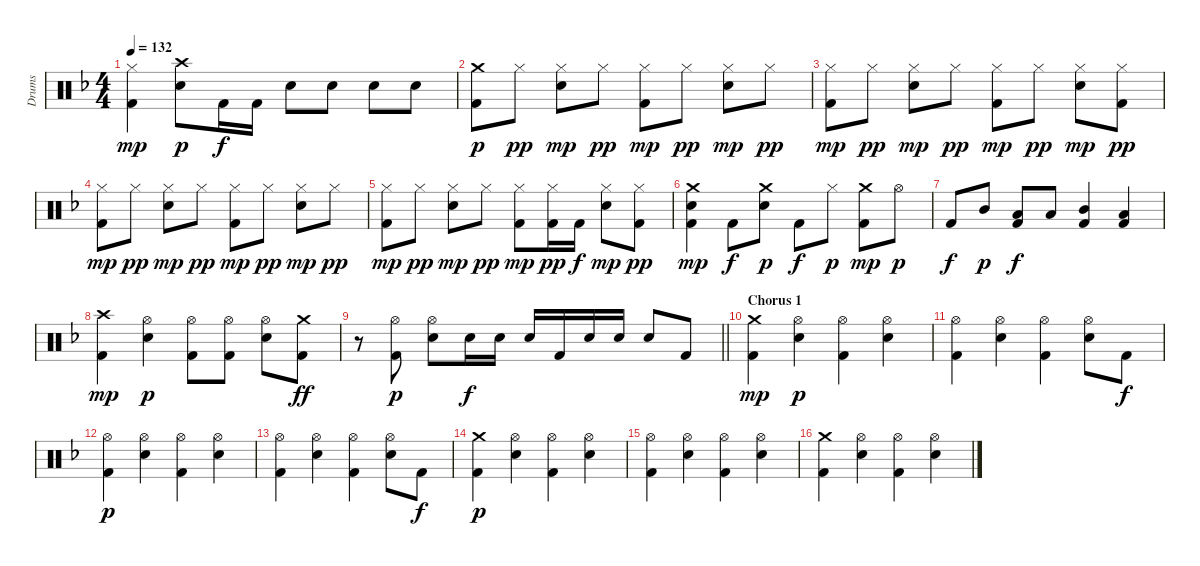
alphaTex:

\track ("Drums" "Drums") {instrument percussion}
\staff {score}
\articulation defaults
\ts (4 4)
\tempo 132
\clef neutral
\ks f
("Hi-Hat (closed)" "Kick (hit) 2").4{dy mp} ("Crash high (hit)" "Electric Snare (hit)").8{dy p} "Kick (hit) 2".16{dy f} "Kick (hit) 2".16 "Electric Snare (hit)".8 "Electric Snare (hit)".8 "Electric Snare (hit)".8 "Electric Snare (hit)".8 |
("Crash medium (hit)" "Kick (hit) 2").8{dy p} "Hi-Hat (closed)".8{dy pp} ("Hi-Hat (closed)" "Electric Snare (hit)").8{dy mp} "Hi-Hat (closed)".8{dy pp} ("Hi-Hat (closed)" "Kick (hit) 2").8{dy mp} "Hi-Hat (closed)".8{dy pp} ("Hi-Hat (closed)" "Electric Snare (hit)").8{dy mp} "Hi-Hat (closed)".8{dy pp} |
("Hi-Hat (closed)" "Kick (hit) 2").8{dy mp} "Hi-Hat (closed)".8{dy pp} ("Hi-Hat (closed)" "Electric Snare (hit)").8{dy mp} "Hi-Hat (closed)".8{dy pp} ("Hi-Hat (closed)" "Kick (hit) 2").8{dy mp} "Hi-Hat (closed)".8{dy pp} ("Hi-Hat (closed)" "Electric Snare (hit)").8{dy mp} ("Hi-Hat (closed)" "Kick (hit) 2").8{dy pp} |
("Hi-Hat (closed)" "Kick (hit) 2").8{dy mp} "Hi-Hat (closed)".8{dy pp} ("Hi-Hat (closed)" "Electric Snare (hit)").8{dy mp} "Hi-Hat (closed)".8{dy pp} ("Hi-Hat (closed)" "Kick (hit) 2").8{dy mp} "Hi-Hat (closed)".8{dy pp} ("Hi-Hat (closed)" "Electric Snare (hit)").8{dy mp} "Hi-Hat (closed)".8{dy pp} |
("Hi-Hat (closed)" "Kick (hit) 2").8{dy mp} "Hi-Hat (closed)".8{dy pp} ("Hi-Hat (closed)" "Electric Snare (hit)").8{dy mp} "Hi-Hat (closed)".8{dy pp} ("Hi-Hat (closed)" "Kick (hit) 2").8{dy mp} ("Hi-Hat (closed)" "Kick (hit) 2").16{dy pp} "Kick (hit) 2".16{dy f} ("Hi-Hat (closed)" "Electric Snare (hit)").8{dy mp} ("Hi-Hat (closed)" "Kick (hit) 2").8{dy pp} |
("Kick (hit) 2" "Crash medium (hit)" "Electric Snare (hit)").4{dy mp} "Kick (hit) 2".8{dy f} ("Electric Snare (hit)" "Crash medium (hit)").8{dy p} "Kick (hit) 2".8{dy f} "Hi-Hat (closed)".8{dy p} ("Kick (hit) 2" "Crash medium (hit)").8{dy mp} "Hi-Hat (open)".8{dy p} |
"Kick (hit) 2".8{dy f} "Mid Tom (hit)".8{dy p} ("Kick (hit) 2" "Low Tom (hit)").8{dy f} "Low Tom (hit)".8 ("Kick (hit) 2" "Mid Tom (hit)").4 ("Kick (hit) 2" "Low Tom (hit)").4 |
("Kick (hit) 2" "Crash high (hit)").4{dy mp} ("Electric Snare (hit)" "Hi-Hat (open)").4{dy p} ("Hi-Hat (open)" "Kick (hit) 2").8 ("Hi-Hat (open)" "Kick (hit) 2").8 ("Hi-Hat (open)" "Electric Snare (hit)").8 ("Crash medium (hit)" "Kick (hit) 2").8{dy ff} |
\barLineRight lightlight
r.8 ("Kick (hit) 2" "Hi-Hat (open)").8{dy p} ("Hi-Hat (open)" "Electric Snare (hit)").8 "Electric Snare (hit)".16{dy f} "Electric Snare (hit)".16 "Electric Snare (hit)".16 "Kick (hit) 2".16 "Electric Snare (hit)".16 "Electric Snare (hit)".16 "Electric Snare (hit)".8 "Kick (hit) 2".8 |
\section ("" "Chorus 1")
("Crash medium (hit)" "Kick (hit) 2").4{dy mp} ("Hi-Hat (open)" "Electric Snare (hit)").4{dy p} ("Hi-Hat (open)" "Kick (hit) 2").4 ("Hi-Hat (open)" "Electric Snare (hit)").4 |
("Hi-Hat (open)" "Kick (hit) 2").4 ("Hi-Hat (open)" "Electric Snare (hit)").4 ("Hi-Hat (open)" "Kick (hit) 2").4 ("Hi-Hat (open)" "Electric Snare (hit)").8 "Kick (hit) 2".8{dy f} |
("Hi-Hat (open)" "Kick (hit) 2").4{dy p} ("Hi-Hat (open)" "Electric Snare (hit)").4 ("Hi-Hat (open)" "Kick (hit) 2").4 ("Hi-Hat (open)" "Electric Snare (hit)").4 |
("Hi-Hat (open)" "Kick (hit) 2").4 ("Hi-Hat (open)" "Electric Snare (hit)").4 ("Hi-Hat (open)" "Kick (hit) 2").4 ("Hi-Hat (open)" "Electric Snare (hit)").8 "Kick (hit) 2".8{dy f} |
("Crash medium (hit)" "Kick (hit) 2").4{dy p} ("Hi-Hat (open)" "Electric Snare (hit)").4 ("Hi-Hat (open)" "Kick (hit) 2").4 ("Hi-Hat (open)" "Electric Snare (hit)").4 |
("Hi-Hat (open)" "Kick (hit) 2").4 ("Hi-Hat (open)" "Electric Snare (hit)").4 ("Hi-Hat (open)" "Kick (hit) 2").4 ("Hi-Hat (open)" "Electric Snare (hit)").4 |
("Crash medium (hit)" "Kick (hit) 2").4 ("Hi-Hat (open)" "Electric Snare (hit)").4 ("Hi-Hat (open)" "Kick (hit) 2").4 ("Hi-Hat (open)" "Electric Snare (hit)").4
